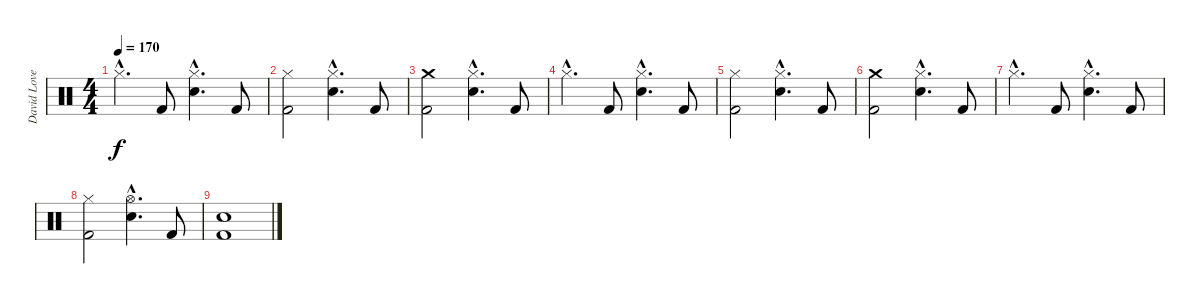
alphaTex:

\track ("David Lovering (Drums)" "David Love") {instrument percussion}
\staff {score}
\articulation defaults
\ts (4 4)
\tempo 170
\clef neutral
\ks c "Hi-Hat (closed)"{hac}.4{d dy f} "Kick (hit) 2".8
("Hi-Hat (closed)"{hac} "Electric Snare (hit)"{hac}).4{d} "Kick (hit) 2".8 |
("Hi-Hat (closed)" "Kick (hit) 2").2 ("Hi-Hat (closed)"{hac} "Electric Snare (hit)"{hac}).4{d} "Kick (hit) 2".8 |
("Crash medium (hit)" "Kick (hit) 2").2 ("Hi-Hat (closed)"{hac} "Electric Snare (hit)"{hac}).4{d} "Kick (hit) 2".8 |
"Hi-Hat (closed)"{hac}.4{d} "Kick (hit) 2".8 ("Hi-Hat (closed)"{hac} "Electric Snare (hit)"{hac}).4{d} "Kick (hit) 2".8 |
("Hi-Hat (closed)" "Kick (hit) 2").2 ("Hi-Hat (closed)"{hac} "Electric Snare (hit)"{hac}).4{d} "Kick (hit) 2".8 |
("Crash medium (hit)" "Kick (hit) 2").2 ("Hi-Hat (closed)"{hac} "Electric Snare (hit)"{hac}).4{d} "Kick (hit) 2".8 |
"Hi-Hat (closed)"{hac}.4{d} "Kick (hit) 2".8 ("Hi-Hat (closed)"{hac} "Electric Snare (hit)"{hac}).4{d} "Kick (hit) 2".8 |
("Hi-Hat (closed)" "Kick (hit) 2").2 ("Hi-Hat (open)"{hac} "Electric Snare (hit)"{hac}).4{d} "Kick (hit) 2".8 |
("Electric Snare (hit)" "Kick (hit) 2").1
